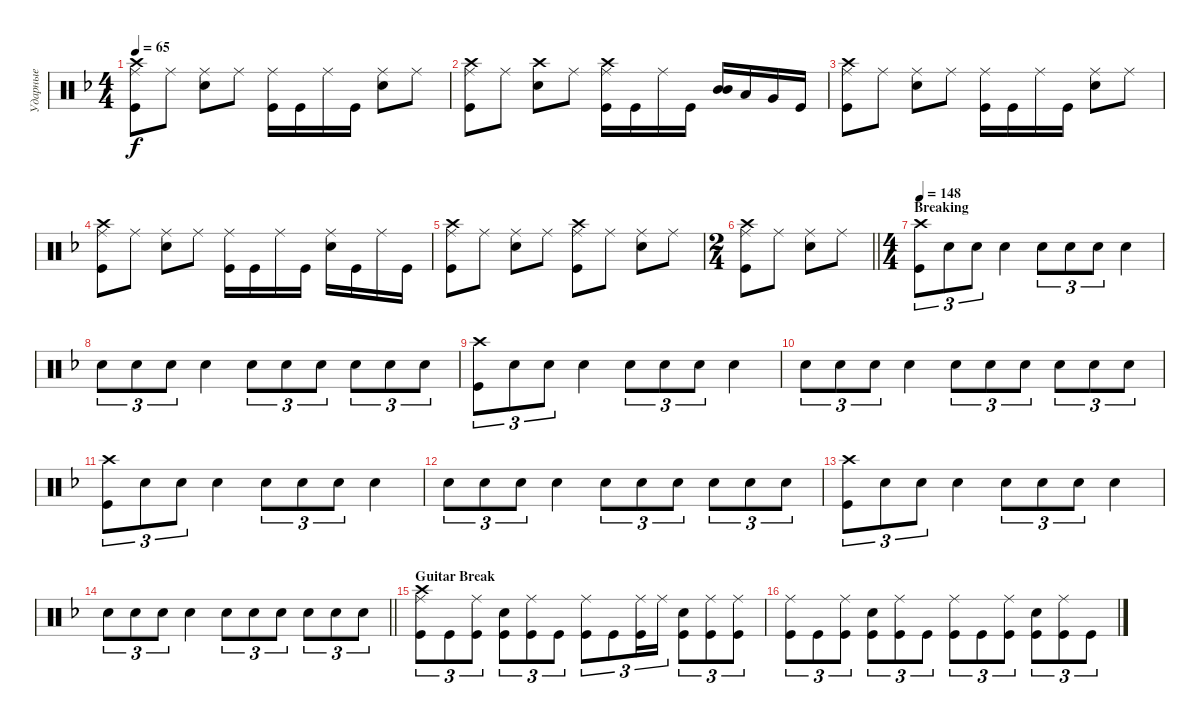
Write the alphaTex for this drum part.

\track ("Ударные" "Ударные") {instrument percussion}
\staff {score}
\articulation defaults
\ts (4 4)
\tempo 65
\clef neutral
\ks dminor
("Kick (hit)" "Crash high (hit)" "Ride (middle)").8{dy f} "Ride (middle)".8 ("Ride (middle)" "Snare (hit) 2").8 "Ride (middle)".8 ("Ride (middle)" "Kick (hit)").16 "Kick (hit)".16 "Ride (middle)".16 "Kick (hit)".16 ("Snare (hit) 2" "Ride (middle)").8 "Ride (middle)".8 |
("Kick (hit)" "Ride (middle)" "Crash high (hit)").8 "Ride (middle)".8 ("Snare (hit) 2" "Crash high (hit)").8 "Ride (middle)".8 ("Ride (middle)" "Kick (hit)" "Crash high (hit)").16 "Kick (hit)".16 "Ride (middle)".16 "Kick (hit)".16 ("Mid Tom (hit)" "Mid Tom (hit)").16{bd 480} "Low Tom (hit)".16 "Very Low Tom (hit)".16 "Kick (hit)".16 |
("Kick (hit)" "Crash high (hit)" "Ride (middle)").8 "Ride (middle)".8 ("Ride (middle)" "Snare (hit) 2").8 "Ride (middle)".8 ("Ride (middle)" "Kick (hit)").16 "Kick (hit)".16 "Ride (middle)".16 "Kick (hit)".16 ("Snare (hit) 2" "Ride (middle)").8 "Ride (middle)".8 |
("Kick (hit)" "Crash high (hit)" "Ride (middle)").8 "Ride (middle)".8 ("Ride (middle)" "Snare (hit) 2").8 "Ride (middle)".8 ("Ride (middle)" "Kick (hit)").16 "Kick (hit)".16 "Ride (middle)".16 "Kick (hit)".16 ("Snare (hit) 2" "Ride (middle)").16 "Kick (hit)".16 "Ride (middle)".16 "Kick (hit)".16 |
("Kick (hit)" "Crash high (hit)" "Ride (middle)").8 "Ride (middle)".8 ("Ride (middle)" "Snare (hit) 2").8 "Ride (middle)".8 ("Kick (hit)" "Crash high (hit)" "Ride (middle)").8 "Ride (middle)".8 ("Ride (middle)" "Snare (hit) 2").8 "Ride (middle)".8 |
\ts (2 4)
\barLineRight lightlight
("Kick (hit)" "Crash high (hit)" "Ride (middle)").8 "Ride (middle)".8 ("Ride (middle)" "Snare (hit) 2").8 "Ride (middle)".8 |
\ts (4 4)
\section ("" "Breaking")
\tempo 148
("Kick (hit)" "Crash high (hit)").8{tu (3 2)} "Snare (hit) 2".8{tu (3 2)} "Snare (hit) 2".8{tu (3 2)} "Snare (hit) 2".4 "Snare (hit) 2".8{tu (3 2)} "Snare (hit) 2".8{tu (3 2)} "Snare (hit) 2".8{tu (3 2)} "Snare (hit) 2".4 |
"Snare (hit) 2".8{tu (3 2)} "Snare (hit) 2".8{tu (3 2)} "Snare (hit) 2".8{tu (3 2)} "Snare (hit) 2".4 "Snare (hit) 2".8{tu (3 2)} "Snare (hit) 2".8{tu (3 2)} "Snare (hit) 2".8{tu (3 2)} "Snare (hit) 2".8{tu (3 2)} "Snare (hit) 2".8{tu (3 2)} "Snare (hit) 2".8{tu (3 2)} |
("Kick (hit)" "Crash high (hit)").8{tu (3 2)} "Snare (hit) 2".8{tu (3 2)} "Snare (hit) 2".8{tu (3 2)} "Snare (hit) 2".4 "Snare (hit) 2".8{tu (3 2)} "Snare (hit) 2".8{tu (3 2)} "Snare (hit) 2".8{tu (3 2)} "Snare (hit) 2".4 |
"Snare (hit) 2".8{tu (3 2)} "Snare (hit) 2".8{tu (3 2)} "Snare (hit) 2".8{tu (3 2)} "Snare (hit) 2".4 "Snare (hit) 2".8{tu (3 2)} "Snare (hit) 2".8{tu (3 2)} "Snare (hit) 2".8{tu (3 2)} "Snare (hit) 2".8{tu (3 2)} "Snare (hit) 2".8{tu (3 2)} "Snare (hit) 2".8{tu (3 2)} |
("Kick (hit)" "Crash high (hit)").8{tu (3 2)} "Snare (hit) 2".8{tu (3 2)} "Snare (hit) 2".8{tu (3 2)} "Snare (hit) 2".4 "Snare (hit) 2".8{tu (3 2)} "Snare (hit) 2".8{tu (3 2)} "Snare (hit) 2".8{tu (3 2)} "Snare (hit) 2".4 |
"Snare (hit) 2".8{tu (3 2)} "Snare (hit) 2".8{tu (3 2)} "Snare (hit) 2".8{tu (3 2)} "Snare (hit) 2".4 "Snare (hit) 2".8{tu (3 2)} "Snare (hit) 2".8{tu (3 2)} "Snare (hit) 2".8{tu (3 2)} "Snare (hit) 2".8{tu (3 2)} "Snare (hit) 2".8{tu (3 2)} "Snare (hit) 2".8{tu (3 2)} |
("Kick (hit)" "Crash high (hit)").8{tu (3 2)} "Snare (hit) 2".8{tu (3 2)} "Snare (hit) 2".8{tu (3 2)} "Snare (hit) 2".4 "Snare (hit) 2".8{tu (3 2)} "Snare (hit) 2".8{tu (3 2)} "Snare (hit) 2".8{tu (3 2)} "Snare (hit) 2".4 |
\barLineRight lightlight "Snare (hit) 2".8{tu (3 2)} "Snare (hit) 2".8{tu (3 2)} "Snare (hit) 2".8{tu (3 2)} "Snare (hit) 2".4 "Snare (hit) 2".8{tu (3 2)} "Snare (hit) 2".8{tu (3 2)} "Snare (hit) 2".8{tu (3 2)} "Snare (hit) 2".8{tu (3 2)} "Snare (hit) 2".8{tu (3 2)} "Snare (hit) 2".8{tu (3 2)}
|
\section ("" "Guitar Break")
("Kick (hit)" "Ride (middle)" "Crash high (hit)").8{tu (3 2)} "Kick (hit)".8{tu (3 2)} ("Kick (hit)" "Ride (middle)").8{tu (3 2)} ("Kick (hit)" "Snare (hit) 2").8{tu (3 2)} ("Kick (hit)" "Ride (middle)").8{tu (3 2)} "Kick (hit)".8{tu (3 2)} ("Kick (hit)" "Ride (middle)").8{tu (3 2)} "Kick (hit)".8{tu (3 2)} ("Kick (hit)" "Ride (middle)").16{tu (3 2)} "Ride (middle)".16{tu (3 2)} ("Kick (hit)" "Snare (hit) 2").8{tu (3 2)} ("Kick (hit)" "Ride (middle)").8{tu (3 2)} ("Kick (hit)" "Ride (middle)").8{tu (3 2)} |
("Kick (hit)" "Ride (middle)").8{tu (3 2)} "Kick (hit)".8{tu (3 2)} ("Kick (hit)" "Ride (middle)").8{tu (3 2)} ("Kick (hit)" "Snare (hit) 2").8{tu (3 2)} ("Kick (hit)" "Ride (middle)").8{tu (3 2)} "Kick (hit)".8{tu (3 2)} ("Kick (hit)" "Ride (middle)").8{tu (3 2)} "Kick (hit)".8{tu (3 2)} ("Kick (hit)" "Ride (middle)").8{tu (3 2)} ("Kick (hit)" "Snare (hit) 2").8{tu (3 2)} ("Kick (hit)" "Ride (middle)").8{tu (3 2)} "Kick (hit)".8{tu (3 2)}
